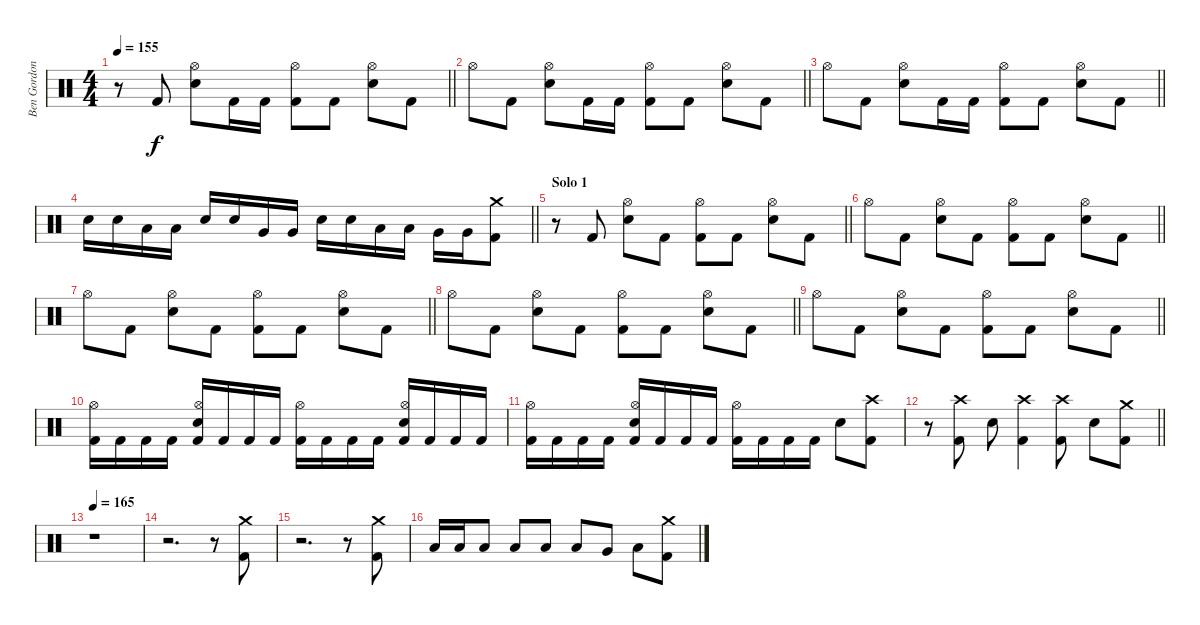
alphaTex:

\track ("Ben Gordon" "Ben Gordon") {instrument percussion}
\staff {score}
\articulation defaults
\ts (4 4)
\tempo 155
\clef neutral
\barLineRight lightlight
\ks c
r.8{dy f} "Kick (hit) 2".8 ("Hi-Hat (open)" "Electric Snare (hit)").8 "Kick (hit) 2".16 "Kick (hit) 2".16 ("Hi-Hat (open)" "Kick (hit) 2").8 "Kick (hit) 2".8 ("Hi-Hat (open)" "Electric Snare (hit)").8 "Kick (hit) 2".8 |
\barLineRight lightlight "Hi-Hat (open)".8 "Kick (hit) 2".8
("Hi-Hat (open)" "Electric Snare (hit)").8 "Kick (hit) 2".16 "Kick (hit) 2".16 ("Hi-Hat (open)" "Kick (hit) 2").8 "Kick (hit) 2".8 ("Hi-Hat (open)" "Electric Snare (hit)").8 "Kick (hit) 2".8 |
\barLineRight lightlight "Hi-Hat (open)".8 "Kick (hit) 2".8
("Hi-Hat (open)" "Electric Snare (hit)").8 "Kick (hit) 2".16 "Kick (hit) 2".16 ("Hi-Hat (open)" "Kick (hit) 2").8 "Kick (hit) 2".8 ("Hi-Hat (open)" "Electric Snare (hit)").8 "Kick (hit) 2".8 |
\barLineRight lightlight "Electric Snare (hit)".16 "Electric Snare (hit)".16 "Low Tom (hit)".16 "Low Tom (hit)".16 "Electric Snare (hit)".16 "Electric Snare (hit)".16 "Very Low Tom (hit)".16 "Very Low Tom (hit)".16 "Electric Snare (hit)".16 "Electric Snare (hit)".16 "Low Tom (hit)".16 "Low Tom (hit)".16 "Very Low Tom (hit)".16 "Very Low Tom (hit)".16
("Crash medium (hit)" "Kick (hit) 2").8 |
\section ("" "Solo 1")
\barLineRight lightlight
r.8 "Kick (hit) 2".8 ("Hi-Hat (open)" "Electric Snare (hit)").8 "Kick (hit) 2".8 ("Hi-Hat (open)" "Kick (hit) 2").8 "Kick (hit) 2".8 ("Hi-Hat (open)" "Electric Snare (hit)").8 "Kick (hit) 2".8 |
\barLineRight lightlight "Hi-Hat (open)".8 "Kick (hit) 2".8
("Hi-Hat (open)" "Electric Snare (hit)").8 "Kick (hit) 2".8 ("Hi-Hat (open)" "Kick (hit) 2").8 "Kick (hit) 2".8 ("Hi-Hat (open)" "Electric Snare (hit)").8 "Kick (hit) 2".8 |
\barLineRight lightlight "Hi-Hat (open)".8 "Kick (hit) 2".8
("Hi-Hat (open)" "Electric Snare (hit)").8 "Kick (hit) 2".8 ("Hi-Hat (open)" "Kick (hit) 2").8 "Kick (hit) 2".8 ("Hi-Hat (open)" "Electric Snare (hit)").8 "Kick (hit) 2".8 |
\barLineRight lightlight "Hi-Hat (open)".8 "Kick (hit) 2".8
("Hi-Hat (open)" "Electric Snare (hit)").8 "Kick (hit) 2".8 ("Hi-Hat (open)" "Kick (hit) 2").8 "Kick (hit) 2".8 ("Hi-Hat (open)" "Electric Snare (hit)").8 "Kick (hit) 2".8 |
\barLineRight lightlight "Hi-Hat (open)".8 "Kick (hit) 2".8
("Hi-Hat (open)" "Electric Snare (hit)").8 "Kick (hit) 2".8 ("Hi-Hat (open)" "Kick (hit) 2").8 "Kick (hit) 2".8 ("Hi-Hat (open)" "Electric Snare (hit)").8 "Kick (hit) 2".8 |
("Hi-Hat (open)" "Kick (hit) 2").16 "Kick (hit) 2".16 "Kick (hit) 2".16 "Kick (hit) 2".16 ("Hi-Hat (open)" "Electric Snare (hit)" "Kick (hit) 2").16 "Kick (hit) 2".16 "Kick (hit) 2".16 "Kick (hit) 2".16 ("Hi-Hat (open)" "Kick (hit) 2").16 "Kick (hit) 2".16 "Kick (hit) 2".16 "Kick (hit) 2".16 ("Hi-Hat (open)" "Electric Snare (hit)" "Kick (hit) 2").16 "Kick (hit) 2".16 "Kick (hit) 2".16 "Kick (hit) 2".16 |
("Hi-Hat (open)" "Kick (hit) 2").16 "Kick (hit) 2".16 "Kick (hit) 2".16 "Kick (hit) 2".16 ("Hi-Hat (open)" "Electric Snare (hit)" "Kick (hit) 2").16 "Kick (hit) 2".16 "Kick (hit) 2".16 "Kick (hit) 2".16 ("Hi-Hat (open)" "Kick (hit) 2").16 "Kick (hit) 2".16 "Kick (hit) 2".16 "Kick (hit) 2".16 "Electric Snare (hit)".8 ("Crash high (hit)" "Kick (hit) 2").8 |
\barLineRight lightlight
r.8 ("Crash high (hit)" "Kick (hit) 2").8 "Electric Snare (hit)".8 ("Crash high (hit)" "Kick (hit) 2").4 ("Crash high (hit)" "Kick (hit) 2").8 "Electric Snare (hit)".8 ("Crash medium (hit)" "Kick (hit) 2").8 |
\tempo 165
r.1 |
r.2{d} r.8 ("Crash medium (hit)" "Kick (hit) 2").8 |
r.2{d} r.8 ("Crash medium (hit)" "Kick (hit) 2").8 |
"Low Tom (hit)".16 "Low Tom (hit)".16 "Low Tom (hit)".8 "Low Tom (hit)".8 "Low Tom (hit)".8 "Low Tom (hit)".8 "Very Low Tom (hit)".8 "Low Floor Tom (hit)".8 ("Crash medium (hit)" "Kick (hit) 2").8
